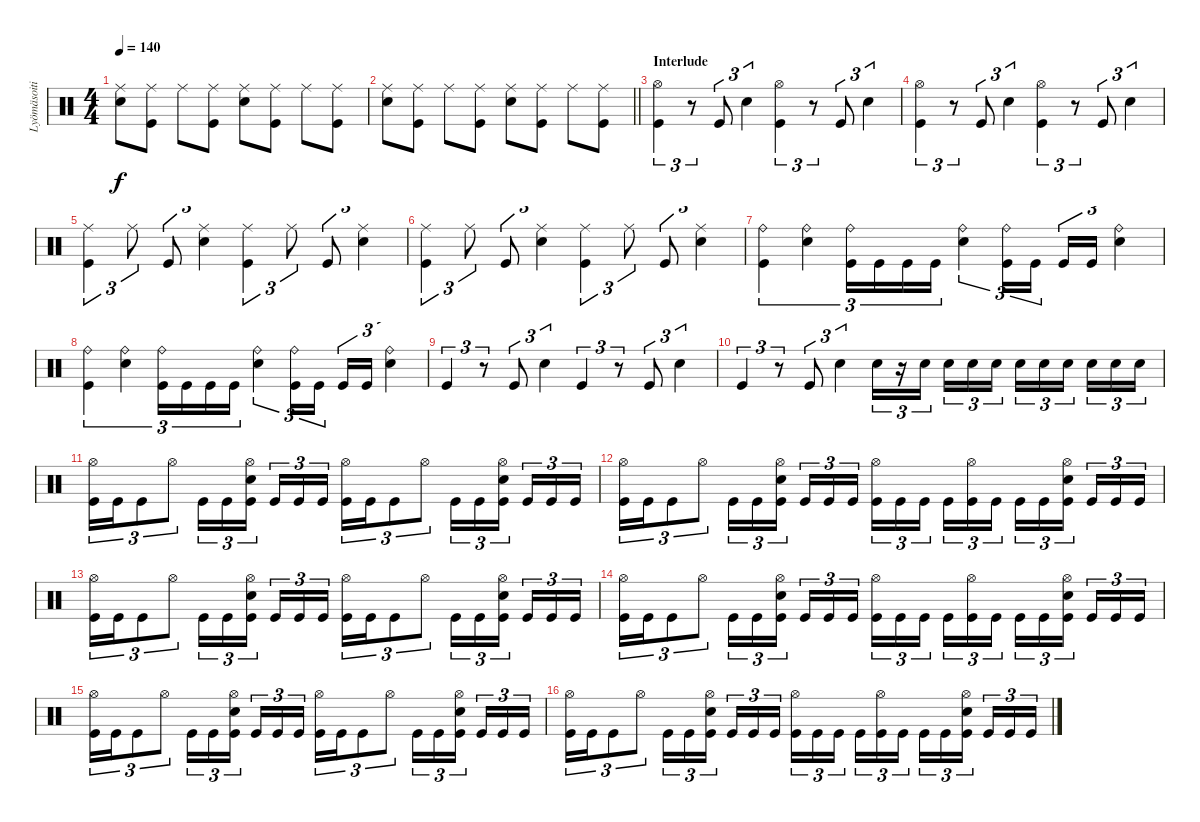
\track ("Lyömäsoitin" "Lyömäsoiti") {instrument percussion}
\staff {score}
\articulation defaults
\ts (4 4)
\tempo 140
\clef neutral
\ks c
("Ride (middle)" "Electric Snare (hit)").8{dy f} ("Ride (middle)" "Kick (hit)").8 "Ride (middle)".8 ("Ride (middle)" "Kick (hit)").8 ("Ride (middle)" "Electric Snare (hit)").8 ("Ride (middle)" "Kick (hit)").8 "Ride (middle)".8 ("Ride (middle)" "Kick (hit)").8 |
\barLineRight lightlight
("Ride (middle)" "Electric Snare (hit)").8 ("Ride (middle)" "Kick (hit)").8 "Ride (middle)".8 ("Ride (middle)" "Kick (hit)").8 ("Ride (middle)" "Electric Snare (hit)").8 ("Ride (middle)" "Kick (hit)").8 "Ride (middle)".8 ("Ride (middle)" "Kick (hit)").8 |
\section ("" "Interlude")
("Hi-Hat (open)" "Kick (hit)").4{tu (3 2)} r.8{tu (3 2)} "Kick (hit)".8{tu (3 2)} "Electric Snare (hit)".4{tu (3 2)} ("Hi-Hat (open)" "Kick (hit)").4{tu (3 2)} r.8{tu (3 2)} "Kick (hit)".8{tu (3 2)} "Electric Snare (hit)".4{tu (3 2)} |
("Hi-Hat (open)" "Kick (hit)").4{tu (3 2)} r.8{tu (3 2)} "Kick (hit)".8{tu (3 2)} "Electric Snare (hit)".4{tu (3 2)} ("Hi-Hat (open)" "Kick (hit)").4{tu (3 2)} r.8{tu (3 2)} "Kick (hit)".8{tu (3 2)} "Electric Snare (hit)".4{tu (3 2)} |
("Ride (middle)" "Kick (hit)").4{tu (3 2)} "Ride (middle)".8{tu (3 2)} "Kick (hit)".8{tu (3 2)} ("Electric Snare (hit)" "Ride (middle)").4{tu (3 2)} ("Ride (middle)" "Kick (hit)").4{tu (3 2)} "Ride (middle)".8{tu (3 2)} "Kick (hit)".8{tu (3 2)} ("Electric Snare (hit)" "Ride (middle)").4{tu (3 2)} |
("Ride (middle)" "Kick (hit)").4{tu (3 2)} "Ride (middle)".8{tu (3 2)} "Kick (hit)".8{tu (3 2)} ("Electric Snare (hit)" "Ride (middle)").4{tu (3 2)} ("Ride (middle)" "Kick (hit)").4{tu (3 2)} "Ride (middle)".8{tu (3 2)} "Kick (hit)".8{tu (3 2)} ("Electric Snare (hit)" "Ride (middle)").4{tu (3 2)} |
("Kick (hit)" "Ride (bell)").4{tu (3 2)} ("Electric Snare (hit)" "Ride (bell)").4{tu (3 2)} ("Kick (hit)" "Ride (bell)").16{tu (3 2)} "Kick (hit)".16{tu (3 2)} "Kick (hit)".16{tu (3 2)} "Kick (hit)".16{tu (3 2)} ("Electric Snare (hit)" "Ride (bell)").4{tu (3 2)} ("Kick (hit)" "Ride (bell)").16{tu (3 2)} "Kick (hit)".16{tu (3 2)} "Kick (hit)".16{tu (3 2)} "Kick (hit)".16{tu (3 2)} ("Electric Snare (hit)" "Ride (bell)").4{tu (3 2)} |
("Kick (hit)" "Ride (bell)").4{tu (3 2)} ("Electric Snare (hit)" "Ride (bell)").4{tu (3 2)} ("Kick (hit)" "Ride (bell)").16{tu (3 2)} "Kick (hit)".16{tu (3 2)} "Kick (hit)".16{tu (3 2)} "Kick (hit)".16{tu (3 2)} ("Electric Snare (hit)" "Ride (bell)").4{tu (3 2)} ("Kick (hit)" "Ride (bell)").16{tu (3 2)} "Kick (hit)".16{tu (3 2)} "Kick (hit)".16{tu (3 2)} "Kick (hit)".16{tu (3 2)} ("Electric Snare (hit)" "Ride (bell)").4{tu (3 2)} |
"Kick (hit)".4{tu (3 2)} r.8{tu (3 2)} "Kick (hit)".8{tu (3 2)} "Electric Snare (hit)".4{tu (3 2)} "Kick (hit)".4{tu (3 2)} r.8{tu (3 2)} "Kick (hit)".8{tu (3 2)} "Electric Snare (hit)".4{tu (3 2)} |
"Kick (hit)".4{tu (3 2)} r.8{tu (3 2)} "Kick (hit)".8{tu (3 2)} "Electric Snare (hit)".4{tu (3 2)} "Electric Snare (hit)".16{tu (3 2)} r.16{tu (3 2)} "Electric Snare (hit)".16{tu (3 2) beam splitsecondary} "Electric Snare (hit)".16{tu (3 2)} "Electric Snare (hit)".16{tu (3 2)} "Electric Snare (hit)".16{tu (3 2)} "Electric Snare (hit)".16{tu (3 2)} "Electric Snare (hit)".16{tu (3 2)} "Electric Snare (hit)".16{tu (3 2) beam splitsecondary} "Electric Snare (hit)".16{tu (3 2)} "Electric Snare (hit)".16{tu (3 2)} "Electric Snare (hit)".16{tu (3 2)} |
("Kick (hit)" "Hi-Hat (open)").16{tu (3 2)} "Kick (hit)".16{tu (3 2)} "Kick (hit)".8{tu (3 2)} "Hi-Hat (open)".8{tu (3 2)} "Kick (hit)".16{tu (3 2)} "Kick (hit)".16{tu (3 2)} ("Kick (hit)" "Hi-Hat (open)" "Electric Snare (hit)").16{tu (3 2) beam splitsecondary} "Kick (hit)".16{tu (3 2)} "Kick (hit)".16{tu (3 2)} "Kick (hit)".16{tu (3 2)} ("Kick (hit)" "Hi-Hat (open)").16{tu (3 2)} "Kick (hit)".16{tu (3 2)} "Kick (hit)".8{tu (3 2)} "Hi-Hat (open)".8{tu (3 2)} "Kick (hit)".16{tu (3 2)} "Kick (hit)".16{tu (3 2)} ("Kick (hit)" "Hi-Hat (open)" "Electric Snare (hit)").16{tu (3 2) beam splitsecondary} "Kick (hit)".16{tu (3 2)} "Kick (hit)".16{tu (3 2)} "Kick (hit)".16{tu (3 2)} |
("Kick (hit)" "Hi-Hat (open)").16{tu (3 2)} "Kick (hit)".16{tu (3 2)} "Kick (hit)".8{tu (3 2)} "Hi-Hat (open)".8{tu (3 2)} "Kick (hit)".16{tu (3 2)} "Kick (hit)".16{tu (3 2)} ("Kick (hit)" "Hi-Hat (open)" "Electric Snare (hit)").16{tu (3 2) beam splitsecondary} "Kick (hit)".16{tu (3 2)} "Kick (hit)".16{tu (3 2)} "Kick (hit)".16{tu (3 2)} ("Kick (hit)" "Hi-Hat (open)").16{tu (3 2)} "Kick (hit)".16{tu (3 2)} "Kick (hit)".16{tu (3 2) beam splitsecondary} "Kick (hit)".16{tu (3 2)} ("Kick (hit)" "Hi-Hat (open)").16{tu (3 2)} "Kick (hit)".16{tu (3 2)} "Kick (hit)".16{tu (3 2)} "Kick (hit)".16{tu (3 2)} ("Kick (hit)" "Hi-Hat (open)" "Electric Snare (hit)").16{tu (3 2) beam splitsecondary} "Kick (hit)".16{tu (3 2)} "Kick (hit)".16{tu (3 2)} "Kick (hit)".16{tu (3 2)} |
("Kick (hit)" "Hi-Hat (open)").16{tu (3 2)} "Kick (hit)".16{tu (3 2)} "Kick (hit)".8{tu (3 2)} "Hi-Hat (open)".8{tu (3 2)} "Kick (hit)".16{tu (3 2)} "Kick (hit)".16{tu (3 2)} ("Kick (hit)" "Hi-Hat (open)" "Electric Snare (hit)").16{tu (3 2) beam splitsecondary} "Kick (hit)".16{tu (3 2)} "Kick (hit)".16{tu (3 2)} "Kick (hit)".16{tu (3 2)} ("Kick (hit)" "Hi-Hat (open)").16{tu (3 2)} "Kick (hit)".16{tu (3 2)} "Kick (hit)".8{tu (3 2)} "Hi-Hat (open)".8{tu (3 2)} "Kick (hit)".16{tu (3 2)} "Kick (hit)".16{tu (3 2)} ("Kick (hit)" "Hi-Hat (open)" "Electric Snare (hit)").16{tu (3 2) beam splitsecondary} "Kick (hit)".16{tu (3 2)} "Kick (hit)".16{tu (3 2)} "Kick (hit)".16{tu (3 2)} |
("Kick (hit)" "Hi-Hat (open)").16{tu (3 2)} "Kick (hit)".16{tu (3 2)} "Kick (hit)".8{tu (3 2)} "Hi-Hat (open)".8{tu (3 2)} "Kick (hit)".16{tu (3 2)} "Kick (hit)".16{tu (3 2)} ("Kick (hit)" "Hi-Hat (open)" "Electric Snare (hit)").16{tu (3 2) beam splitsecondary} "Kick (hit)".16{tu (3 2)} "Kick (hit)".16{tu (3 2)} "Kick (hit)".16{tu (3 2)} ("Kick (hit)" "Hi-Hat (open)").16{tu (3 2)} "Kick (hit)".16{tu (3 2)} "Kick (hit)".16{tu (3 2) beam splitsecondary} "Kick (hit)".16{tu (3 2)} ("Kick (hit)" "Hi-Hat (open)").16{tu (3 2)} "Kick (hit)".16{tu (3 2)} "Kick (hit)".16{tu (3 2)} "Kick (hit)".16{tu (3 2)} ("Kick (hit)" "Hi-Hat (open)" "Electric Snare (hit)").16{tu (3 2) beam splitsecondary} "Kick (hit)".16{tu (3 2)} "Kick (hit)".16{tu (3 2)} "Kick (hit)".16{tu (3 2)} |
("Kick (hit)" "Hi-Hat (open)").16{tu (3 2)} "Kick (hit)".16{tu (3 2)} "Kick (hit)".8{tu (3 2)} "Hi-Hat (open)".8{tu (3 2)} "Kick (hit)".16{tu (3 2)} "Kick (hit)".16{tu (3 2)} ("Kick (hit)" "Hi-Hat (open)" "Electric Snare (hit)").16{tu (3 2) beam splitsecondary} "Kick (hit)".16{tu (3 2)} "Kick (hit)".16{tu (3 2)} "Kick (hit)".16{tu (3 2)} ("Kick (hit)" "Hi-Hat (open)").16{tu (3 2)} "Kick (hit)".16{tu (3 2)} "Kick (hit)".8{tu (3 2)} "Hi-Hat (open)".8{tu (3 2)} "Kick (hit)".16{tu (3 2)} "Kick (hit)".16{tu (3 2)} ("Kick (hit)" "Hi-Hat (open)" "Electric Snare (hit)").16{tu (3 2) beam splitsecondary} "Kick (hit)".16{tu (3 2)} "Kick (hit)".16{tu (3 2)} "Kick (hit)".16{tu (3 2)} |
("Kick (hit)" "Hi-Hat (open)").16{tu (3 2)} "Kick (hit)".16{tu (3 2)} "Kick (hit)".8{tu (3 2)} "Hi-Hat (open)".8{tu (3 2)} "Kick (hit)".16{tu (3 2)} "Kick (hit)".16{tu (3 2)} ("Kick (hit)" "Hi-Hat (open)" "Electric Snare (hit)").16{tu (3 2) beam splitsecondary} "Kick (hit)".16{tu (3 2)} "Kick (hit)".16{tu (3 2)} "Kick (hit)".16{tu (3 2)} ("Kick (hit)" "Hi-Hat (open)").16{tu (3 2)} "Kick (hit)".16{tu (3 2)} "Kick (hit)".16{tu (3 2) beam splitsecondary} "Kick (hit)".16{tu (3 2)} ("Kick (hit)" "Hi-Hat (open)").16{tu (3 2)} "Kick (hit)".16{tu (3 2)} "Kick (hit)".16{tu (3 2)} "Kick (hit)".16{tu (3 2)} ("Kick (hit)" "Hi-Hat (open)" "Electric Snare (hit)").16{tu (3 2) beam splitsecondary} "Kick (hit)".16{tu (3 2)} "Kick (hit)".16{tu (3 2)} "Kick (hit)".16{tu (3 2)}
